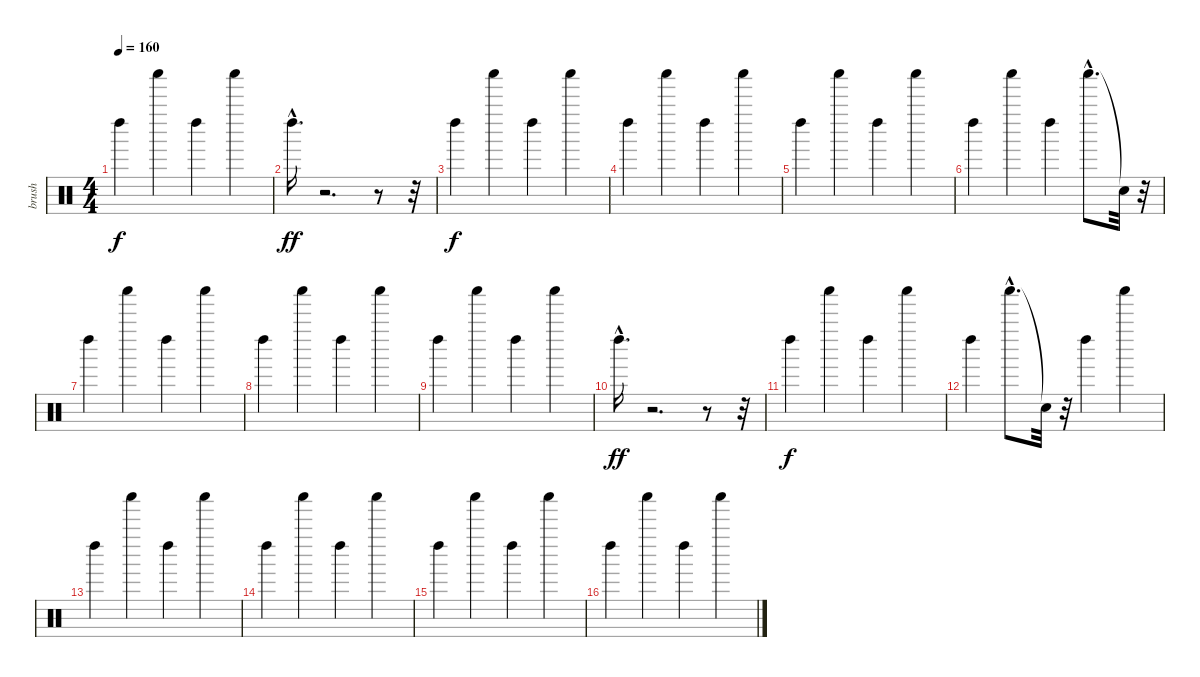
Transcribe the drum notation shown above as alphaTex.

\track ("brush" "brush") {instrument percussion}
\staff {score}
\articulation defaults
\ts (4 4)
\tempo 160
\clef neutral
\ks c "Left Maraca (hit)".4{dy f} "Shaker (hit)".4 "Left Maraca (hit)".4 "Shaker (hit)".4
|
"Left Maraca (hit)"{hac}.16{d dy ff} r.2{d} r.8 r.32 |
"Left Maraca (hit)".4{dy f} "Shaker (hit)".4 "Left Maraca (hit)".4 "Shaker (hit)".4 |
"Left Maraca (hit)".4 "Shaker (hit)".4 "Left Maraca (hit)".4 "Shaker (hit)".4 |
"Left Maraca (hit)".4 "Shaker (hit)".4 "Left Maraca (hit)".4 "Shaker (hit)".4 |
"Left Maraca (hit)".4 "Shaker (hit)".4 "Left Maraca (hit)".4 "Shaker (hit)"{hac}.8{d} "Snare (hit)"{t}.32 r.32 |
"Left Maraca (hit)".4 "Shaker (hit)".4 "Left Maraca (hit)".4 "Shaker (hit)".4 |
"Left Maraca (hit)".4 "Shaker (hit)".4 "Left Maraca (hit)".4 "Shaker (hit)".4 |
"Left Maraca (hit)".4 "Shaker (hit)".4 "Left Maraca (hit)".4 "Shaker (hit)".4 |
"Left Maraca (hit)"{hac}.16{d dy ff} r.2{d} r.8 r.32 |
"Left Maraca (hit)".4{dy f} "Shaker (hit)".4 "Left Maraca (hit)".4 "Shaker (hit)".4 |
"Left Maraca (hit)".4 "Shaker (hit)"{hac}.8{d} "Snare (hit)"{t}.32 r.32 "Left Maraca (hit)".4 "Shaker (hit)".4 |
"Left Maraca (hit)".4 "Shaker (hit)".4 "Left Maraca (hit)".4 "Shaker (hit)".4 |
"Left Maraca (hit)".4 "Shaker (hit)".4 "Left Maraca (hit)".4 "Shaker (hit)".4 |
"Left Maraca (hit)".4 "Shaker (hit)".4 "Left Maraca (hit)".4 "Shaker (hit)".4 |
"Left Maraca (hit)".4 "Shaker (hit)".4 "Left Maraca (hit)".4 "Shaker (hit)".4
